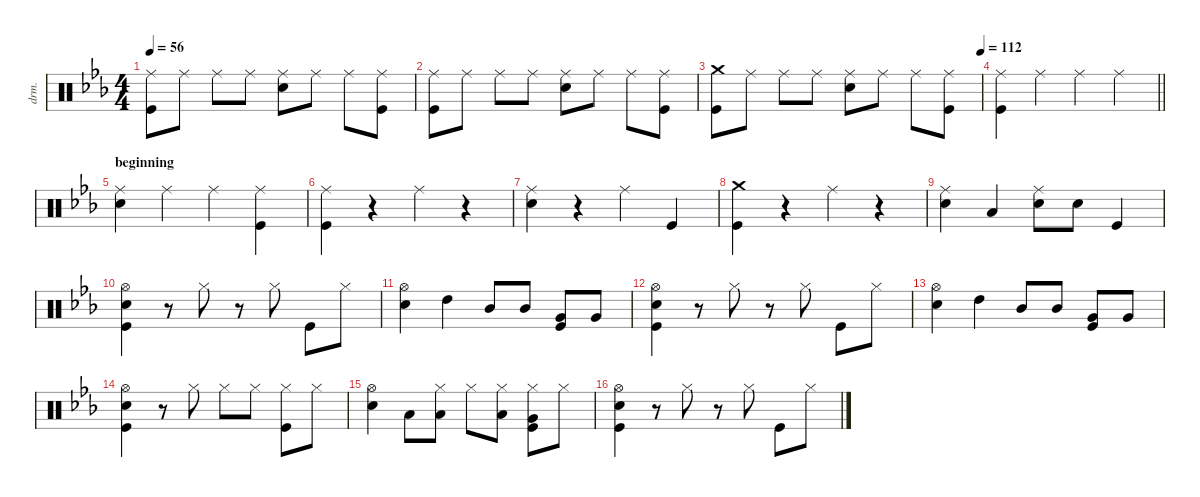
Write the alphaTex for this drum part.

\defaultSystemsLayout 4
\hideDynamics
\bracketExtendMode nobrackets
\otherSystemsTrackNameOrientation horizontal
\track ("Percussion" "drm.") {instrument percussion}
\staff {score}
\articulation defaults
\ts (4 4)
\tempo 56
\clef neutral
\ks cminor
("Ride (middle)"{acc forcenatural} "Kick (hit)"{acc forcenatural}).8{dy f beam Down} "Ride (middle)"{acc forcenatural}.8{beam Down} "Ride (middle)"{acc forcenatural}.8{beam Down} "Ride (middle)"{acc forcenatural}.8{beam Down} ("Snare (hit) 2"{acc forcenatural} "Ride (middle)"{acc forcenatural}).8{beam Down} "Ride (middle)"{acc forcenatural}.8{beam Down} "Ride (middle)"{acc forcenatural}.8{beam Down} ("Kick (hit)"{acc forcenatural} "Ride (middle)"{acc forcenatural}).8{beam Down} |
("Ride (middle)"{acc forcenatural} "Kick (hit)"{acc forcenatural}).8{beam Down} "Ride (middle)"{acc forcenatural}.8{beam Down} "Ride (middle)"{acc forcenatural}.8{beam Down} "Ride (middle)"{acc forcenatural}.8{beam Down} ("Snare (hit) 2"{acc forcenatural} "Ride (middle)"{acc forcenatural}).8{beam Down} "Ride (middle)"{acc forcenatural}.8{beam Down} "Ride (middle)"{acc forcenatural}.8{beam Down} ("Kick (hit)"{acc forcenatural} "Ride (middle)"{acc forcenatural}).8{beam Down} |
\tempo (112 1)
("Crash medium (hit)"{acc forcenatural} "Kick (hit)"{acc forcenatural}).8{beam Down} "Ride (middle)"{acc forcenatural}.8{beam Down} "Ride (middle)"{acc forcenatural}.8{beam Down} "Ride (middle)"{acc forcenatural}.8{beam Down} ("Snare (hit) 2"{acc forcenatural} "Ride (middle)"{acc forcenatural}).8{beam Down} "Ride (middle)"{acc forcenatural}.8{beam Down} "Ride (middle)"{acc forcenatural}.8{beam Down} ("Kick (hit)"{acc forcenatural} "Ride (middle)"{acc forcenatural}).8{beam Down} |
\barLineRight lightlight
("Ride (middle)"{acc forcenatural} "Kick (hit)"{acc forcenatural}).4{beam Down} "Ride (middle)"{acc forcenatural}.4{beam Down} "Ride (middle)"{acc forcenatural}.4{beam Down} "Ride (middle)"{acc forcenatural}.4{beam Down} |
\section ("" "beginning")
("Snare (hit) 2"{acc forcenatural} "Ride (middle)"{acc forcenatural}).4{beam Down} "Ride (middle)"{acc forcenatural}.4{beam Down} "Ride (middle)"{acc forcenatural}.4{beam Down} ("Kick (hit)"{acc forcenatural} "Ride (middle)"{acc forcenatural}).4{beam Down} |
("Ride (middle)"{acc forcenatural} "Kick (hit)"{acc forcenatural}).4{beam Down} r.4{beam Down} "Ride (middle)"{acc forcenatural}.4{beam Down} r.4{beam Down} |
("Snare (hit) 2"{acc forcenatural} "Ride (middle)"{acc forcenatural}).4{beam Down} r.4{beam Down} "Ride (middle)"{acc forcenatural}.4{beam Down} "Kick (hit)"{acc forcenatural}.4{beam Up} |
("Crash medium (hit)"{acc forcenatural} "Kick (hit)"{acc forcenatural}).4{beam Down} r.4{beam Down} "Ride (middle)"{acc forcenatural}.4{beam Down} r.4{beam Down} |
("Snare (hit) 2"{acc forcenatural} "Ride (middle)"{acc forcenatural}).4{beam Down} "Low Floor Tom (hit)"{acc forcenatural}.4{beam Up} ("Snare (hit) 2"{acc forcenatural} "Ride (middle)"{acc forcenatural}).8{beam Down} "Snare (hit) 2"{acc forcenatural}.8{beam Down} "Kick (hit)"{acc forcenatural}.4{beam Up} |
("Hi-Hat (open)"{acc forcenatural} "Kick (hit)"{acc forcenatural} "Snare (hit) 2"{acc forcenatural}).4{beam Down} r.8{beam Down} "Hi-Hat (closed)"{acc forcenatural}.8{beam Down} r.8{beam Down} "Hi-Hat (closed)"{acc forcenatural}.8{beam Down} "Kick (hit)"{acc forcenatural}.8{beam Down} "Hi-Hat (closed)"{acc forcenatural}.8{beam Down} |
("Snare (hit) 2"{acc forcenatural} "Hi-Hat (open)"{acc forcenatural}).4{beam Down} "High Tom (hit)"{acc forcenatural}.4{beam Down} "Mid Tom (hit)"{acc forcenatural}.8{beam Up} "Mid Tom (hit)"{acc forcenatural}.8{beam Up} ("Very Low Tom (hit)"{acc forcenatural} "Kick (hit)"{acc forcenatural}).8{beam Up} "Very Low Tom (hit)"{acc forcenatural}.8{beam Up} |
("Hi-Hat (open)"{acc forcenatural} "Kick (hit)"{acc forcenatural} "Snare (hit) 2"{acc forcenatural}).4{beam Down} r.8{beam Down} "Hi-Hat (closed)"{acc forcenatural}.8{beam Down} r.8{beam Down} "Hi-Hat (closed)"{acc forcenatural}.8{beam Down} "Kick (hit)"{acc forcenatural}.8{beam Down} "Hi-Hat (closed)"{acc forcenatural}.8{beam Down} |
("Snare (hit) 2"{acc forcenatural} "Hi-Hat (open)"{acc forcenatural}).4{beam Down} "High Tom (hit)"{acc forcenatural}.4{beam Down} "Mid Tom (hit)"{acc forcenatural}.8{beam Up} "Mid Tom (hit)"{acc forcenatural}.8{beam Up} ("Very Low Tom (hit)"{acc forcenatural} "Kick (hit)"{acc forcenatural}).8{beam Up} "Very Low Tom (hit)"{acc forcenatural}.8{beam Up} |
("Hi-Hat (open)"{acc forcenatural} "Kick (hit)"{acc forcenatural} "Snare (hit) 2"{acc forcenatural}).4{beam Down} r.8{beam Down} "Hi-Hat (closed)"{acc forcenatural}.8{beam Down} "Hi-Hat (closed)"{acc forcenatural}.8{beam Down} "Hi-Hat (closed)"{acc forcenatural}.8{beam Down} ("Kick (hit)"{acc forcenatural} "Hi-Hat (closed)"{acc forcenatural}).8{beam Down} "Hi-Hat (closed)"{acc forcenatural}.8{beam Down} |
("Snare (hit) 2"{acc forcenatural} "Hi-Hat (open)"{acc forcenatural}).4{beam Down} "Low Tom (hit)"{acc forcenatural}.8{beam Down} ("Low Tom (hit)"{acc forcenatural} "Hi-Hat (closed)"{acc forcenatural}).8{beam Down} "Hi-Hat (closed)"{acc forcenatural}.8{beam Down} ("Low Tom (hit)"{acc forcenatural} "Hi-Hat (closed)"{acc forcenatural}).8{beam Down} ("Very Low Tom (hit)"{acc forcenatural} "Kick (hit)"{acc forcenatural} "Hi-Hat (closed)"{acc forcenatural}).8{beam Down} "Hi-Hat (closed)"{acc forcenatural}.8{beam Down} |
("Hi-Hat (open)"{acc forcenatural} "Kick (hit)"{acc forcenatural} "Snare (hit) 2"{acc forcenatural}).4{beam Down} r.8{beam Down} "Hi-Hat (closed)"{acc forcenatural}.8{beam Down} r.8{beam Down} "Hi-Hat (closed)"{acc forcenatural}.8{beam Down} "Kick (hit)"{acc forcenatural}.8{beam Down} "Hi-Hat (closed)"{acc forcenatural}.8{beam Down}
